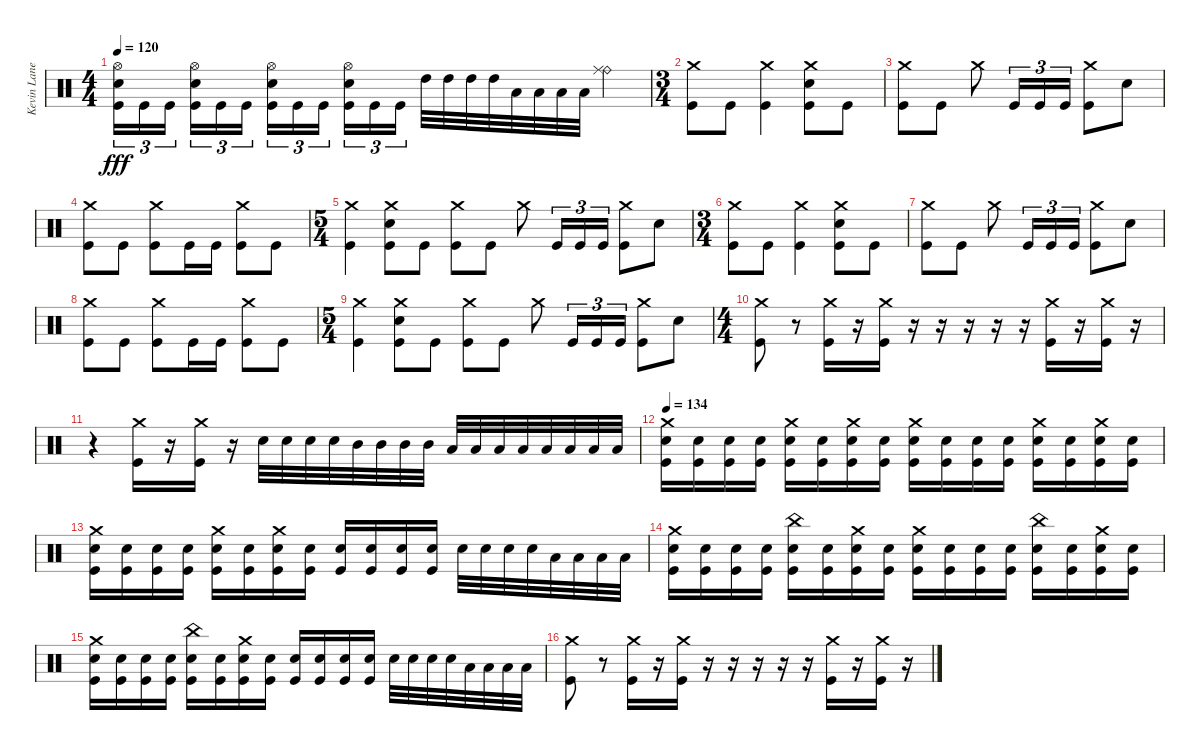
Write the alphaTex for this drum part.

\track ("Kevin Lane" "Kevin Lane") {instrument percussion}
\staff {score}
\articulation defaults
\ts (4 4)
\tempo 120
\clef neutral
\ks c
("Hi-Hat (open)" "Snare (hit) 2" "Kick (hit)").16{tu (3 2) dy fff} "Kick (hit)".16{tu (3 2)} "Kick (hit)".16{tu (3 2) beam splitsecondary} ("Hi-Hat (open)" "Snare (hit) 2" "Kick (hit)").16{tu (3 2)} "Kick (hit)".16{tu (3 2)} "Kick (hit)".16{tu (3 2)} ("Hi-Hat (open)" "Snare (hit) 2" "Kick (hit)").16{tu (3 2)} "Kick (hit)".16{tu (3 2)} "Kick (hit)".16{tu (3 2) beam splitsecondary} ("Hi-Hat (open)" "Snare (hit) 2" "Kick (hit)").16{tu (3 2)} "Kick (hit)".16{tu (3 2)} "Kick (hit)".16{tu (3 2)} "High Tom (hit)".32 "High Tom (hit)".32 "High Tom (hit)".32 "High Tom (hit)".32 "Low Tom (hit)".32 "Low Tom (hit)".32 "Low Tom (hit)".32 "Low Tom (hit)".32 ("Ride (bell)" "Ride (middle)").4 |
\ts (3 4)
("Crash medium (hit)" "Kick (hit)").8 "Kick (hit)".8 ("Crash medium (hit)" "Kick (hit)").4 ("Crash medium (hit)" "Snare (hit) 2" "Kick (hit)").8 "Kick (hit)".8 |
("Crash medium (hit)" "Kick (hit)").8 "Kick (hit)".8 "Crash medium (hit)".8 "Kick (hit)".16{tu (3 2)} "Kick (hit)".16{tu (3 2)} "Kick (hit)".16{tu (3 2)} ("Crash medium (hit)" "Kick (hit)").8 "Snare (hit) 2".8 |
("Crash medium (hit)" "Kick (hit)").8 "Kick (hit)".8 ("Crash medium (hit)" "Kick (hit)").8 "Kick (hit)".16 "Kick (hit)".16 ("Crash medium (hit)" "Kick (hit)").8 "Kick (hit)".8 |
\ts (5 4)
("Crash medium (hit)" "Kick (hit)").4 ("Crash medium (hit)" "Snare (hit) 2" "Kick (hit)").8 "Kick (hit)".8 ("Crash medium (hit)" "Kick (hit)").8 "Kick (hit)".8 "Crash medium (hit)".8 "Kick (hit)".16{tu (3 2)} "Kick (hit)".16{tu (3 2)} "Kick (hit)".16{tu (3 2)} ("Crash medium (hit)" "Kick (hit)").8 "Snare (hit) 2".8 |
\ts (3 4)
("Crash medium (hit)" "Kick (hit)").8 "Kick (hit)".8 ("Crash medium (hit)" "Kick (hit)").4 ("Crash medium (hit)" "Snare (hit) 2" "Kick (hit)").8 "Kick (hit)".8 |
("Crash medium (hit)" "Kick (hit)").8 "Kick (hit)".8 "Crash medium (hit)".8 "Kick (hit)".16{tu (3 2)} "Kick (hit)".16{tu (3 2)} "Kick (hit)".16{tu (3 2)} ("Crash medium (hit)" "Kick (hit)").8 "Snare (hit) 2".8 |
("Crash medium (hit)" "Kick (hit)").8 "Kick (hit)".8 ("Crash medium (hit)" "Kick (hit)").8 "Kick (hit)".16 "Kick (hit)".16 ("Crash medium (hit)" "Kick (hit)").8 "Kick (hit)".8 |
\ts (5 4)
("Crash medium (hit)" "Kick (hit)").4 ("Crash medium (hit)" "Snare (hit) 2" "Kick (hit)").8 "Kick (hit)".8 ("Crash medium (hit)" "Kick (hit)").8 "Kick (hit)".8 "Crash medium (hit)".8 "Kick (hit)".16{tu (3 2)} "Kick (hit)".16{tu (3 2)} "Kick (hit)".16{tu (3 2)} ("Crash medium (hit)" "Kick (hit)").8 "Snare (hit) 2".8 |
\ts (4 4)
("Crash medium (hit)" "Kick (hit)").8{volume 13} r.8{volume 0} ("Crash medium (hit)" "Kick (hit)").16{volume 13} r.16{volume 0} ("Crash medium (hit)" "Kick (hit)").16{volume 13} r.16{volume 0} r.16 r.16 r.16 r.16 ("Crash medium (hit)" "Kick (hit)").16{volume 13} r.16{volume 0} ("Crash medium (hit)" "Kick (hit)").16{volume 13} r.16{volume 0} |
r.4 ("Crash medium (hit)" "Kick (hit)").16{volume 13} r.16{volume 0} ("Crash medium (hit)" "Kick (hit)").16{volume 13} r.16{volume 0} "Snare (hit) 2".32{volume 13} "Snare (hit) 2".32 "Snare (hit) 2".32 "Snare (hit) 2".32 "Mid Tom (hit)".32 "Mid Tom (hit)".32 "Mid Tom (hit)".32 "Mid Tom (hit)".32 "Low Tom (hit)".32 "Low Tom (hit)".32 "Low Tom (hit)".32 "Low Tom (hit)".32 "Low Floor Tom (hit)".32 "Low Floor Tom (hit)".32 "Low Floor Tom (hit)".32 "Low Floor Tom (hit)".32 |
\tempo 134
("Crash medium (hit)" "Snare (hit) 2" "Kick (hit)").16 ("Snare (hit) 2" "Kick (hit)").16 ("Snare (hit) 2" "Kick (hit)").16 ("Snare (hit) 2" "Kick (hit)").16 ("Crash medium (hit)" "Snare (hit) 2" "Kick (hit)").16 ("Snare (hit) 2" "Kick (hit)").16 ("Crash medium (hit)" "Snare (hit) 2" "Kick (hit)").16 ("Snare (hit) 2" "Kick (hit)").16 ("Crash medium (hit)" "Snare (hit) 2" "Kick (hit)").16 ("Snare (hit) 2" "Kick (hit)").16 ("Snare (hit) 2" "Kick (hit)").16 ("Snare (hit) 2" "Kick (hit)").16 ("Crash medium (hit)" "Snare (hit) 2" "Kick (hit)").16 ("Snare (hit) 2" "Kick (hit)").16 ("Crash medium (hit)" "Snare (hit) 2" "Kick (hit)").16 ("Snare (hit) 2" "Kick (hit)").16 |
("Crash medium (hit)" "Snare (hit) 2" "Kick (hit)").16 ("Snare (hit) 2" "Kick (hit)").16 ("Snare (hit) 2" "Kick (hit)").16 ("Snare (hit) 2" "Kick (hit)").16 ("Crash medium (hit)" "Snare (hit) 2" "Kick (hit)").16 ("Snare (hit) 2" "Kick (hit)").16 ("Crash medium (hit)" "Snare (hit) 2" "Kick (hit)").16 ("Snare (hit) 2" "Kick (hit)").16 ("Snare (hit) 2" "Kick (hit)").16 ("Snare (hit) 2" "Kick (hit)").16 ("Snare (hit) 2" "Kick (hit)").16 ("Snare (hit) 2" "Kick (hit)").16 "Snare (hit) 2".32 "Snare (hit) 2".32 "Snare (hit) 2".32 "Snare (hit) 2".32 "Low Tom (hit)".32 "Low Tom (hit)".32 "Low Tom (hit)".32 "Low Tom (hit)".32 |
("Crash medium (hit)" "Snare (hit) 2" "Kick (hit)").16 ("Snare (hit) 2" "Kick (hit)").16 ("Snare (hit) 2" "Kick (hit)").16 ("Snare (hit) 2" "Kick (hit)").16 ("China (hit)" "Snare (hit) 2" "Kick (hit)").16 ("Snare (hit) 2" "Kick (hit)").16 ("Crash medium (hit)" "Snare (hit) 2" "Kick (hit)").16 ("Snare (hit) 2" "Kick (hit)").16 ("Crash medium (hit)" "Snare (hit) 2" "Kick (hit)").16 ("Snare (hit) 2" "Kick (hit)").16 ("Snare (hit) 2" "Kick (hit)").16 ("Snare (hit) 2" "Kick (hit)").16 ("China (hit)" "Snare (hit) 2" "Kick (hit)").16 ("Snare (hit) 2" "Kick (hit)").16 ("Crash medium (hit)" "Snare (hit) 2" "Kick (hit)").16 ("Snare (hit) 2" "Kick (hit)").16 |
("Crash medium (hit)" "Snare (hit) 2" "Kick (hit)").16 ("Snare (hit) 2" "Kick (hit)").16 ("Snare (hit) 2" "Kick (hit)").16 ("Snare (hit) 2" "Kick (hit)").16 ("China (hit)" "Snare (hit) 2" "Kick (hit)").16 ("Snare (hit) 2" "Kick (hit)").16 ("Crash medium (hit)" "Snare (hit) 2" "Kick (hit)").16 ("Snare (hit) 2" "Kick (hit)").16 ("Snare (hit) 2" "Kick (hit)").16 ("Snare (hit) 2" "Kick (hit)").16 ("Snare (hit) 2" "Kick (hit)").16 ("Snare (hit) 2" "Kick (hit)").16 "Snare (hit) 2".32 "Snare (hit) 2".32 "Snare (hit) 2".32 "Snare (hit) 2".32 "Low Tom (hit)".32 "Low Tom (hit)".32 "Low Tom (hit)".32 "Low Tom (hit)".32 |
("Crash medium (hit)" "Kick (hit)").8{volume 13} r.8{volume 0} ("Crash medium (hit)" "Kick (hit)").16{volume 13} r.16{volume 0} ("Crash medium (hit)" "Kick (hit)").16{volume 13} r.16{volume 0} r.16 r.16 r.16 r.16 ("Crash medium (hit)" "Kick (hit)").16{volume 13} r.16{volume 0} ("Crash medium (hit)" "Kick (hit)").16{volume 13} r.16{volume 0}
